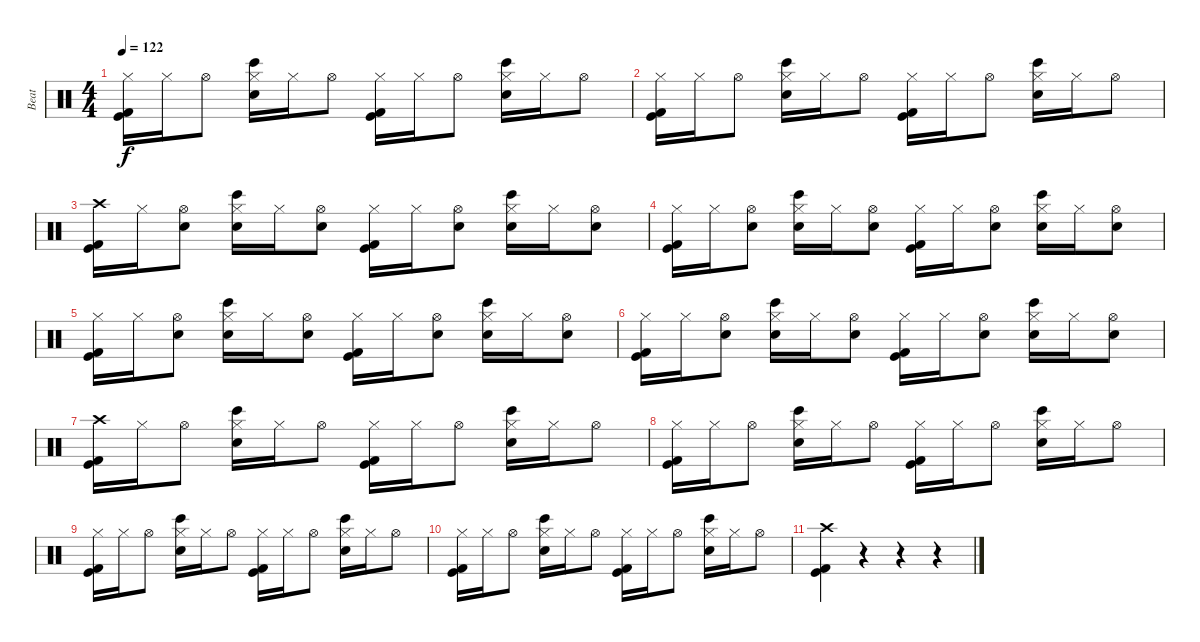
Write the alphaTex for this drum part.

\track ("Beat" "Beat") {instrument percussion}
\staff {score}
\articulation defaults
\ts (4 4)
\tempo 122
\clef neutral
\ks c
("Hi-Hat (closed)" "Kick (hit)" "Kick (hit) 2").16{dy f} "Hi-Hat (closed)".16 "Hi-Hat (open)".8 ("Hi-Hat (closed)" "Bongo High (hit)" "Electric Snare (hit)").16 "Hi-Hat (closed)".16 "Hi-Hat (open)".8 ("Hi-Hat (closed)" "Kick (hit)" "Kick (hit) 2").16 "Hi-Hat (closed)".16 "Hi-Hat (open)".8 ("Hi-Hat (closed)" "Bongo High (hit)" "Electric Snare (hit)").16 "Hi-Hat (closed)".16 "Hi-Hat (open)".8 |
("Hi-Hat (closed)" "Kick (hit)" "Kick (hit) 2").16 "Hi-Hat (closed)".16 "Hi-Hat (open)".8 ("Hi-Hat (closed)" "Bongo High (hit)" "Electric Snare (hit)").16 "Hi-Hat (closed)".16 "Hi-Hat (open)".8 ("Hi-Hat (closed)" "Kick (hit)" "Kick (hit) 2").16 "Hi-Hat (closed)".16 "Hi-Hat (open)".8 ("Hi-Hat (closed)" "Bongo High (hit)" "Electric Snare (hit)").16 "Hi-Hat (closed)".16 "Hi-Hat (open)".8 |
("Crash high (hit)" "Kick (hit)" "Kick (hit) 2").16 "Hi-Hat (closed)".16 ("Hi-Hat (open)" "Hand Clap (hit)").8 ("Hi-Hat (closed)" "Bongo High (hit)" "Electric Snare (hit)").16 "Hi-Hat (closed)".16 ("Hi-Hat (open)" "Hand Clap (hit)").8 ("Hi-Hat (closed)" "Kick (hit)" "Kick (hit) 2").16 "Hi-Hat (closed)".16 ("Hi-Hat (open)" "Hand Clap (hit)").8 ("Hi-Hat (closed)" "Bongo High (hit)" "Electric Snare (hit)").16 "Hi-Hat (closed)".16 ("Hi-Hat (open)" "Hand Clap (hit)").8 |
("Hi-Hat (closed)" "Kick (hit)" "Kick (hit) 2").16 "Hi-Hat (closed)".16 ("Hi-Hat (open)" "Hand Clap (hit)").8 ("Hi-Hat (closed)" "Bongo High (hit)" "Electric Snare (hit)").16 "Hi-Hat (closed)".16 ("Hi-Hat (open)" "Hand Clap (hit)").8 ("Hi-Hat (closed)" "Kick (hit)" "Kick (hit) 2").16 "Hi-Hat (closed)".16 ("Hi-Hat (open)" "Hand Clap (hit)").8 ("Hi-Hat (closed)" "Bongo High (hit)" "Electric Snare (hit)").16 "Hi-Hat (closed)".16 ("Hi-Hat (open)" "Hand Clap (hit)").8 |
("Hi-Hat (closed)" "Kick (hit)" "Kick (hit) 2").16 "Hi-Hat (closed)".16 ("Hi-Hat (open)" "Hand Clap (hit)").8 ("Hi-Hat (closed)" "Bongo High (hit)" "Electric Snare (hit)").16 "Hi-Hat (closed)".16 ("Hi-Hat (open)" "Hand Clap (hit)").8 ("Hi-Hat (closed)" "Kick (hit)" "Kick (hit) 2").16 "Hi-Hat (closed)".16 ("Hi-Hat (open)" "Hand Clap (hit)").8 ("Hi-Hat (closed)" "Bongo High (hit)" "Electric Snare (hit)").16 "Hi-Hat (closed)".16 ("Hi-Hat (open)" "Hand Clap (hit)").8 |
("Hi-Hat (closed)" "Kick (hit)" "Kick (hit) 2").16 "Hi-Hat (closed)".16 ("Hi-Hat (open)" "Hand Clap (hit)").8 ("Hi-Hat (closed)" "Bongo High (hit)" "Electric Snare (hit)").16 "Hi-Hat (closed)".16 ("Hi-Hat (open)" "Hand Clap (hit)").8 ("Hi-Hat (closed)" "Kick (hit)" "Kick (hit) 2").16 "Hi-Hat (closed)".16 ("Hi-Hat (open)" "Hand Clap (hit)").8 ("Hi-Hat (closed)" "Bongo High (hit)" "Electric Snare (hit)").16 "Hi-Hat (closed)".16 ("Hi-Hat (open)" "Hand Clap (hit)").8 |
("Crash high (hit)" "Kick (hit)" "Kick (hit) 2").16 "Hi-Hat (closed)".16 "Hi-Hat (open)".8 ("Hi-Hat (closed)" "Bongo High (hit)" "Electric Snare (hit)").16 "Hi-Hat (closed)".16 "Hi-Hat (open)".8 ("Hi-Hat (closed)" "Kick (hit)" "Kick (hit) 2").16 "Hi-Hat (closed)".16 "Hi-Hat (open)".8 ("Hi-Hat (closed)" "Bongo High (hit)" "Electric Snare (hit)").16 "Hi-Hat (closed)".16 "Hi-Hat (open)".8 |
("Hi-Hat (closed)" "Kick (hit)" "Kick (hit) 2").16 "Hi-Hat (closed)".16 "Hi-Hat (open)".8 ("Hi-Hat (closed)" "Bongo High (hit)" "Electric Snare (hit)").16 "Hi-Hat (closed)".16 "Hi-Hat (open)".8 ("Hi-Hat (closed)" "Kick (hit)" "Kick (hit) 2").16 "Hi-Hat (closed)".16 "Hi-Hat (open)".8 ("Hi-Hat (closed)" "Bongo High (hit)" "Electric Snare (hit)").16 "Hi-Hat (closed)".16 "Hi-Hat (open)".8 |
("Hi-Hat (closed)" "Kick (hit)" "Kick (hit) 2").16 "Hi-Hat (closed)".16 "Hi-Hat (open)".8 ("Hi-Hat (closed)" "Bongo High (hit)" "Electric Snare (hit)").16 "Hi-Hat (closed)".16 "Hi-Hat (open)".8 ("Hi-Hat (closed)" "Kick (hit)" "Kick (hit) 2").16 "Hi-Hat (closed)".16 "Hi-Hat (open)".8 ("Hi-Hat (closed)" "Bongo High (hit)" "Electric Snare (hit)").16 "Hi-Hat (closed)".16 "Hi-Hat (open)".8 |
("Hi-Hat (closed)" "Kick (hit)" "Kick (hit) 2").16 "Hi-Hat (closed)".16 "Hi-Hat (open)".8 ("Hi-Hat (closed)" "Bongo High (hit)" "Electric Snare (hit)").16 "Hi-Hat (closed)".16 "Hi-Hat (open)".8 ("Hi-Hat (closed)" "Kick (hit)" "Kick (hit) 2").16 "Hi-Hat (closed)".16 "Hi-Hat (open)".8 ("Hi-Hat (closed)" "Bongo High (hit)" "Electric Snare (hit)").16 "Hi-Hat (closed)".16 "Hi-Hat (open)".8 |
("Crash high (hit)" "Kick (hit)" "Kick (hit) 2").4 r.4 r.4 r.4
